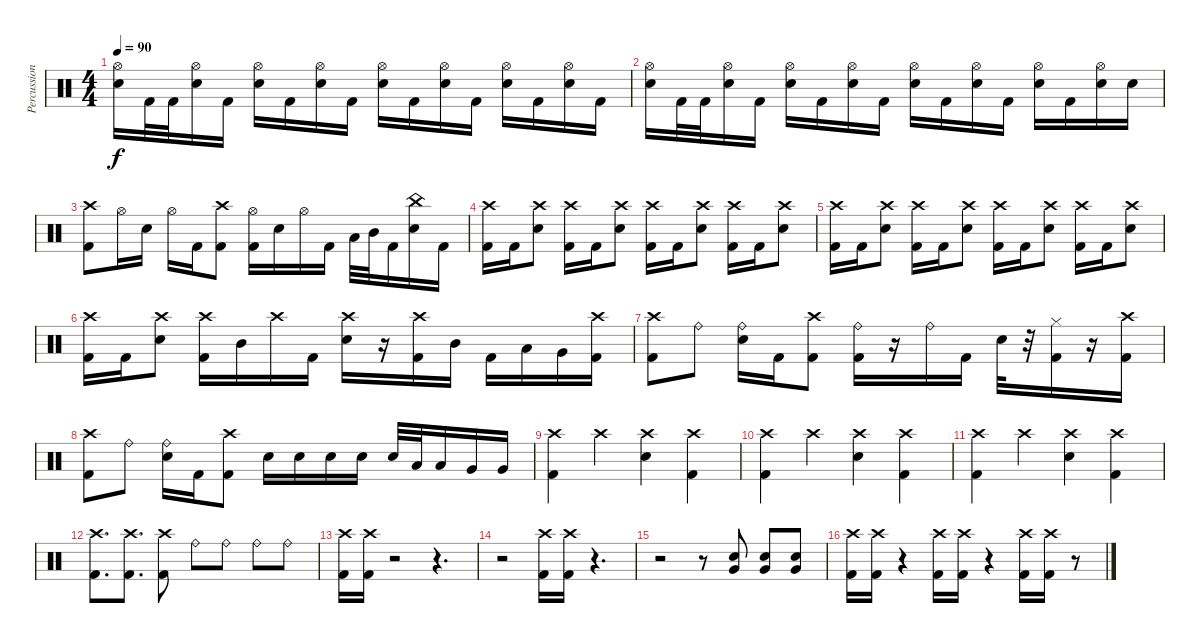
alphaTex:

\track ("Percussion" "Percussion") {instrument percussion}
\staff {score}
\articulation defaults
\ts (4 4)
\tempo 90
\clef neutral
\ks c
("Hi-Hat (open)" "Snare (hit) 2").16{dy f} "Kick (hit) 2".32 "Kick (hit) 2".32 ("Hi-Hat (open)" "Snare (hit) 2").16 "Kick (hit) 2".16 ("Hi-Hat (open)" "Snare (hit) 2").16 "Kick (hit) 2".16 ("Hi-Hat (open)" "Snare (hit) 2").16 "Kick (hit) 2".16 ("Hi-Hat (open)" "Snare (hit) 2").16 "Kick (hit) 2".16 ("Hi-Hat (open)" "Snare (hit) 2").16 "Kick (hit) 2".16 ("Hi-Hat (open)" "Snare (hit) 2").16 "Kick (hit) 2".16 ("Hi-Hat (open)" "Snare (hit) 2").16 "Kick (hit) 2".16 |
("Hi-Hat (open)" "Snare (hit) 2").16 "Kick (hit) 2".32 "Kick (hit) 2".32 ("Hi-Hat (open)" "Snare (hit) 2").16 "Kick (hit) 2".16 ("Hi-Hat (open)" "Snare (hit) 2").16 "Kick (hit) 2".16 ("Hi-Hat (open)" "Snare (hit) 2").16 "Kick (hit) 2".16 ("Hi-Hat (open)" "Snare (hit) 2").16 "Kick (hit) 2".16 ("Hi-Hat (open)" "Snare (hit) 2").16 "Kick (hit) 2".16 ("Hi-Hat (open)" "Snare (hit) 2").16 "Kick (hit) 2".16 ("Hi-Hat (open)" "Snare (hit) 2").16 "Snare (hit) 2".16 |
("Crash high (hit)" "Kick (hit) 2").8 "Hi-Hat (open)".16 "Snare (hit) 2".16 "Hi-Hat (open)".16 "Kick (hit) 2".16 ("Crash high (hit)" "Kick (hit) 2").8 ("Hi-Hat (open)" "Kick (hit) 2").16 "Snare (hit) 2".16 "Hi-Hat (open)".16 "Kick (hit) 2".16 "Low Tom (hit)".32 "Mid Tom (hit)".32 "Kick (hit) 2".16 ("China (hit)" "Snare (hit) 2").16 "Kick (hit) 2".16 |
("Crash high (hit)" "Kick (hit) 2").16 "Kick (hit) 2".16 ("Crash high (hit)" "Snare (hit) 2").8 ("Crash high (hit)" "Kick (hit) 2").16 "Kick (hit) 2".16 ("Crash high (hit)" "Snare (hit) 2").8 ("Crash high (hit)" "Kick (hit) 2").16 "Kick (hit) 2".16 ("Crash high (hit)" "Snare (hit) 2").8 ("Crash high (hit)" "Kick (hit) 2").16 "Kick (hit) 2".16 ("Crash high (hit)" "Snare (hit) 2").8 |
("Crash high (hit)" "Kick (hit) 2").16 "Kick (hit) 2".16 ("Crash high (hit)" "Snare (hit) 2").8 ("Crash high (hit)" "Kick (hit) 2").16 "Kick (hit) 2".16 ("Crash high (hit)" "Snare (hit) 2").8 ("Crash high (hit)" "Kick (hit) 2").16 "Kick (hit) 2".16 ("Crash high (hit)" "Snare (hit) 2").8 ("Crash high (hit)" "Kick (hit) 2").16 "Kick (hit) 2".16 ("Crash high (hit)" "Snare (hit) 2").8 |
("Crash high (hit)" "Kick (hit) 2").16 "Kick (hit) 2".16 ("Crash high (hit)" "Snare (hit) 2").8 ("Crash high (hit)" "Kick (hit) 2").16 "Mid Tom (hit)".16 "Crash high (hit)".16 "Kick (hit) 2".16 ("Crash high (hit)" "Snare (hit) 2").16 r.16 ("Crash high (hit)" "Kick (hit) 2").16 "Mid Tom (hit)".16 "Kick (hit) 2".16 "Low Tom (hit)".16 "Very Low Tom (hit)".16 ("Crash high (hit)" "Kick (hit) 2").16 |
("Crash high (hit)" "Kick (hit) 2").8 "Ride (bell)".8 ("Ride (bell)" "Snare (hit) 2").16 "Kick (hit) 2".16 ("Crash high (hit)" "Kick (hit) 2").8 ("Ride (bell)" "Kick (hit) 2").16 r.16 "Ride (bell)".16 "Kick (hit) 2".16 "Snare (hit) 2".32 r.32 ("Hi-Hat (closed)" "Kick (hit) 2").16 r.16 ("Crash high (hit)" "Kick (hit) 2").16 |
("Crash high (hit)" "Kick (hit) 2").8 "Ride (bell)".8 ("Ride (bell)" "Snare (hit) 2").16 "Kick (hit) 2".16 ("Crash high (hit)" "Kick (hit) 2").8 "Snare (hit) 2".16 "Snare (hit) 2".16 "Snare (hit) 2".16 "Snare (hit) 2".16 "Snare (hit) 2".32 "Low Tom (hit)".32 "Low Tom (hit)".16 "Very Low Tom (hit)".16 "Very Low Tom (hit)".16 |
("Crash high (hit)" "Kick (hit) 2").4 "Crash high (hit)".4 ("Crash high (hit)" "Snare (hit) 2").4 ("Crash high (hit)" "Kick (hit) 2").4 |
("Crash high (hit)" "Kick (hit) 2").4 "Crash high (hit)".4 ("Crash high (hit)" "Snare (hit) 2").4 ("Crash high (hit)" "Kick (hit) 2").4 |
("Crash high (hit)" "Kick (hit) 2").4 "Crash high (hit)".4 ("Crash high (hit)" "Snare (hit) 2").4 ("Crash high (hit)" "Kick (hit) 2").4 |
("Crash high (hit)" "Kick (hit) 2").8{d} ("Crash high (hit)" "Kick (hit) 2").8{d} ("Crash high (hit)" "Kick (hit) 2").8 "Ride (bell)".8 "Ride (bell)".8 "Ride (bell)".8 "Ride (bell)".8 |
("Crash high (hit)" "Kick (hit) 2").16 ("Crash high (hit)" "Kick (hit) 2").16 r.2 r.4{d} |
r.2 ("Crash high (hit)" "Kick (hit) 2").16 ("Crash high (hit)" "Kick (hit) 2").16 r.4{d} |
r.2 r.8 ("Very Low Tom (hit)" "Snare (hit) 2").8 ("Very Low Tom (hit)" "Snare (hit) 2").8 ("Very Low Tom (hit)" "Snare (hit) 2").8 |
("Crash high (hit)" "Kick (hit) 2").16 ("Crash high (hit)" "Kick (hit) 2").16 r.4 ("Crash high (hit)" "Kick (hit) 2").16 ("Crash high (hit)" "Kick (hit) 2").16 r.4 ("Crash high (hit)" "Kick (hit) 2").16 ("Crash high (hit)" "Kick (hit) 2").16 r.8
